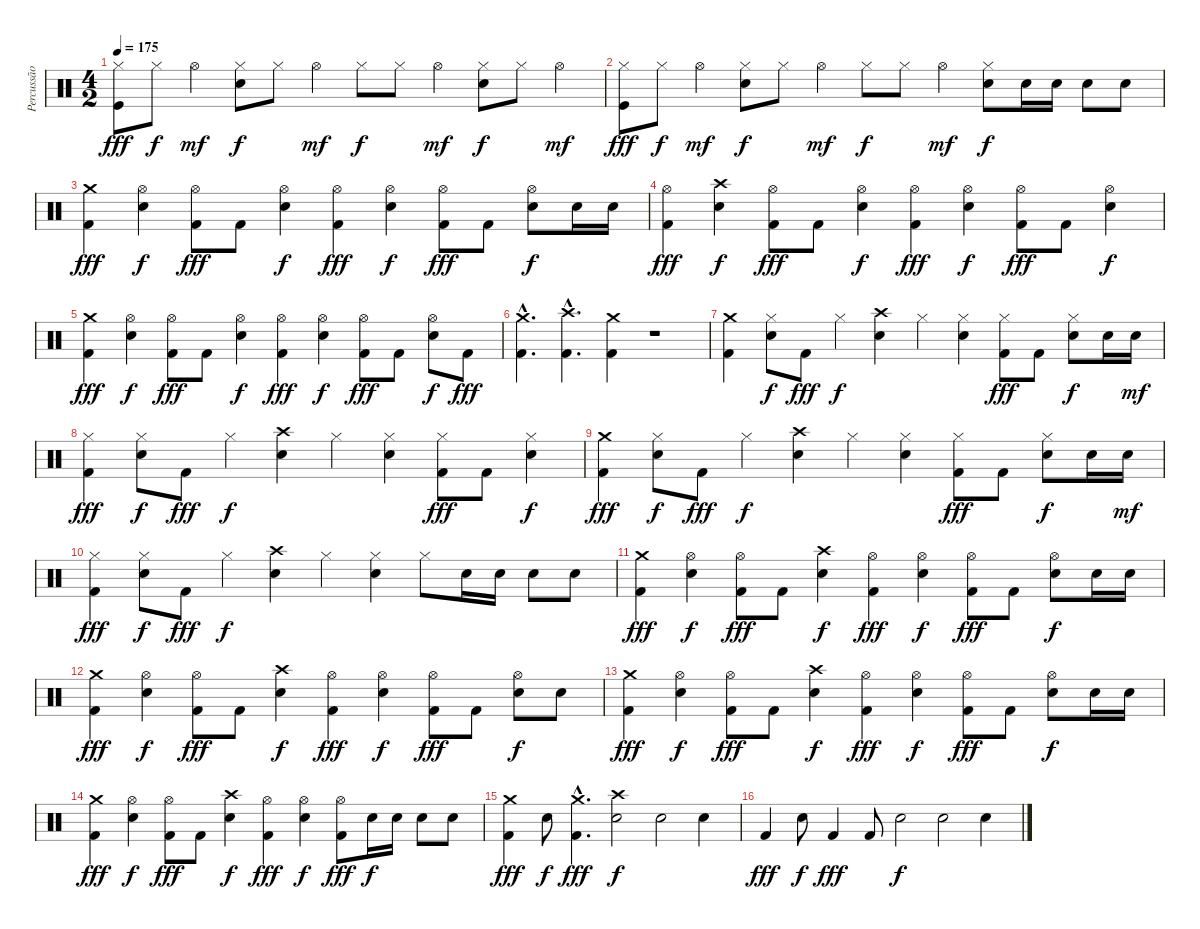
\track ("Percussão" "Percussão") {instrument percussion}
\staff {score}
\articulation defaults
\ts (4 2)
\tempo 175
\clef neutral
\ks c
("Hi-Hat (closed)" "Kick (hit)").8{dy fff} "Hi-Hat (closed)".8{dy f} "Hi-Hat (open)".4{dy mf} ("Hi-Hat (closed)" "Electric Snare (hit)").8{dy f} "Hi-Hat (closed)".8 "Hi-Hat (open)".4{dy mf} "Hi-Hat (closed)".8{dy f} "Hi-Hat (closed)".8 "Hi-Hat (open)".4{dy mf} ("Hi-Hat (closed)" "Electric Snare (hit)").8{dy f} "Hi-Hat (closed)".8 "Hi-Hat (open)".4{dy mf} |
("Hi-Hat (closed)" "Kick (hit)").8{dy fff} "Hi-Hat (closed)".8{dy f} "Hi-Hat (open)".4{dy mf} ("Hi-Hat (closed)" "Electric Snare (hit)").8{dy f} "Hi-Hat (closed)".8 "Hi-Hat (open)".4{dy mf} "Hi-Hat (closed)".8{dy f} "Hi-Hat (closed)".8 "Hi-Hat (open)".4{dy mf} ("Hi-Hat (closed)" "Electric Snare (hit)").8{dy f} "Electric Snare (hit)".16 "Electric Snare (hit)".16 "Electric Snare (hit)".8 "Electric Snare (hit)".8 |
("Crash medium (hit)" "Kick (hit) 2").4{dy fff} ("Hi-Hat (open)" "Electric Snare (hit)").4{dy f} ("Hi-Hat (open)" "Kick (hit) 2").8{dy fff} "Kick (hit) 2".8 ("Hi-Hat (open)" "Electric Snare (hit)").4{dy f} ("Hi-Hat (open)" "Kick (hit) 2").4{dy fff} ("Hi-Hat (open)" "Electric Snare (hit)").4{dy f} ("Hi-Hat (open)" "Kick (hit) 2").8{dy fff} "Kick (hit) 2".8 ("Hi-Hat (open)" "Electric Snare (hit)").8{dy f} "Electric Snare (hit)".16 "Electric Snare (hit)".16 |
("Hi-Hat (open)" "Kick (hit) 2").4{dy fff} ("Crash high (hit)" "Electric Snare (hit)").4{dy f} ("Hi-Hat (open)" "Kick (hit) 2").8{dy fff} "Kick (hit) 2".8 ("Hi-Hat (open)" "Electric Snare (hit)").4{dy f} ("Hi-Hat (open)" "Kick (hit) 2").4{dy fff} ("Hi-Hat (open)" "Electric Snare (hit)").4{dy f} ("Hi-Hat (open)" "Kick (hit) 2").8{dy fff} "Kick (hit) 2".8 ("Hi-Hat (open)" "Electric Snare (hit)").4{dy f} |
("Crash medium (hit)" "Kick (hit) 2").4{dy fff} ("Hi-Hat (open)" "Electric Snare (hit)").4{dy f} ("Hi-Hat (open)" "Kick (hit) 2").8{dy fff} "Kick (hit) 2".8 ("Hi-Hat (open)" "Electric Snare (hit)").4{dy f} ("Hi-Hat (open)" "Kick (hit) 2").4{dy fff} ("Hi-Hat (open)" "Electric Snare (hit)").4{dy f} ("Hi-Hat (open)" "Kick (hit) 2").8{dy fff} "Kick (hit) 2".8 ("Hi-Hat (open)" "Electric Snare (hit)").8{dy f} "Kick (hit) 2".8{dy fff} |
("Crash medium (hit)"{hac} "Kick (hit) 2"{hac}).4{d} ("Crash high (hit)"{hac} "Kick (hit) 2"{hac}).4{d} ("Crash medium (hit)" "Kick (hit) 2").4 r.1 |
("Crash medium (hit)" "Kick (hit) 2").4 ("Hi-Hat (closed)" "Electric Snare (hit)").8{dy f} "Kick (hit) 2".8{dy fff} "Hi-Hat (closed)".4{dy f} ("Crash high (hit)" "Electric Snare (hit)").4 "Hi-Hat (closed)".4 ("Hi-Hat (closed)" "Electric Snare (hit)").4 ("Hi-Hat (closed)" "Kick (hit) 2").8{dy fff} "Kick (hit) 2".8 ("Hi-Hat (closed)" "Electric Snare (hit)").8{dy f} "Electric Snare (hit)".16 "Electric Snare (hit)".16{dy mf} |
("Hi-Hat (closed)" "Kick (hit) 2").4{dy fff} ("Hi-Hat (closed)" "Electric Snare (hit)").8{dy f} "Kick (hit) 2".8{dy fff} "Hi-Hat (closed)".4{dy f} ("Crash high (hit)" "Electric Snare (hit)").4 "Hi-Hat (closed)".4 ("Hi-Hat (closed)" "Electric Snare (hit)").4 ("Hi-Hat (closed)" "Kick (hit) 2").8{dy fff} "Kick (hit) 2".8 ("Hi-Hat (closed)" "Electric Snare (hit)").4{dy f} |
("Crash medium (hit)" "Kick (hit) 2").4{dy fff} ("Hi-Hat (closed)" "Electric Snare (hit)").8{dy f} "Kick (hit) 2".8{dy fff} "Hi-Hat (closed)".4{dy f} ("Crash high (hit)" "Electric Snare (hit)").4 "Hi-Hat (closed)".4 ("Hi-Hat (closed)" "Electric Snare (hit)").4 ("Hi-Hat (closed)" "Kick (hit) 2").8{dy fff} "Kick (hit) 2".8 ("Hi-Hat (closed)" "Electric Snare (hit)").8{dy f} "Electric Snare (hit)".16 "Electric Snare (hit)".16{dy mf} |
("Hi-Hat (closed)" "Kick (hit) 2").4{dy fff} ("Hi-Hat (closed)" "Electric Snare (hit)").8{dy f} "Kick (hit) 2".8{dy fff} "Hi-Hat (closed)".4{dy f} ("Crash high (hit)" "Electric Snare (hit)").4 "Hi-Hat (closed)".4 ("Hi-Hat (closed)" "Electric Snare (hit)").4 "Hi-Hat (closed)".8 "Electric Snare (hit)".16 "Electric Snare (hit)".16 "Electric Snare (hit)".8 "Electric Snare (hit)".8 |
("Crash medium (hit)" "Kick (hit) 2").4{dy fff} ("Hi-Hat (open)" "Electric Snare (hit)").4{dy f} ("Hi-Hat (open)" "Kick (hit) 2").8{dy fff} "Kick (hit) 2".8 ("Crash high (hit)" "Electric Snare (hit)").4{dy f} ("Hi-Hat (open)" "Kick (hit) 2").4{dy fff} ("Hi-Hat (open)" "Electric Snare (hit)").4{dy f} ("Hi-Hat (open)" "Kick (hit) 2").8{dy fff} "Kick (hit) 2".8 ("Hi-Hat (open)" "Electric Snare (hit)").8{dy f} "Electric Snare (hit)".16 "Electric Snare (hit)".16 |
("Crash medium (hit)" "Kick (hit) 2").4{dy fff} ("Hi-Hat (open)" "Electric Snare (hit)").4{dy f} ("Hi-Hat (open)" "Kick (hit) 2").8{dy fff} "Kick (hit) 2".8 ("Crash high (hit)" "Electric Snare (hit)").4{dy f} ("Hi-Hat (open)" "Kick (hit) 2").4{dy fff} ("Hi-Hat (open)" "Electric Snare (hit)").4{dy f} ("Hi-Hat (open)" "Kick (hit) 2").8{dy fff} "Kick (hit) 2".8 ("Hi-Hat (open)" "Electric Snare (hit)").8{dy f} "Electric Snare (hit)".8 |
("Crash medium (hit)" "Kick (hit) 2").4{dy fff} ("Hi-Hat (open)" "Electric Snare (hit)").4{dy f} ("Hi-Hat (open)" "Kick (hit) 2").8{dy fff} "Kick (hit) 2".8 ("Crash high (hit)" "Electric Snare (hit)").4{dy f} ("Hi-Hat (open)" "Kick (hit) 2").4{dy fff} ("Hi-Hat (open)" "Electric Snare (hit)").4{dy f} ("Hi-Hat (open)" "Kick (hit) 2").8{dy fff} "Kick (hit) 2".8 ("Hi-Hat (open)" "Electric Snare (hit)").8{dy f} "Electric Snare (hit)".16 "Electric Snare (hit)".16 |
("Crash medium (hit)" "Kick (hit) 2").4{dy fff} ("Hi-Hat (open)" "Electric Snare (hit)").4{dy f} ("Hi-Hat (open)" "Kick (hit) 2").8{dy fff} "Kick (hit) 2".8 ("Crash high (hit)" "Electric Snare (hit)").4{dy f} ("Hi-Hat (open)" "Kick (hit) 2").4{dy fff} ("Hi-Hat (open)" "Electric Snare (hit)").4{dy f} ("Hi-Hat (open)" "Kick (hit) 2").8{dy fff} "Electric Snare (hit)".16{dy f} "Electric Snare (hit)".16 "Electric Snare (hit)".8 "Electric Snare (hit)".8 |
("Crash medium (hit)" "Kick (hit) 2").4{dy fff} "Electric Snare (hit)".8{dy f} ("Crash medium (hit)"{hac} "Kick (hit) 2"{hac}).4{d dy fff} ("Crash high (hit)" "Electric Snare (hit)").2{dy f} "Electric Snare (hit)".2 "Electric Snare (hit)".4 |
"Kick (hit) 2".4{dy fff} "Electric Snare (hit)".8{dy f} "Kick (hit) 2".4{dy fff} "Kick (hit) 2".8 "Electric Snare (hit)".2{dy f} "Electric Snare (hit)".2 "Electric Snare (hit)".4
